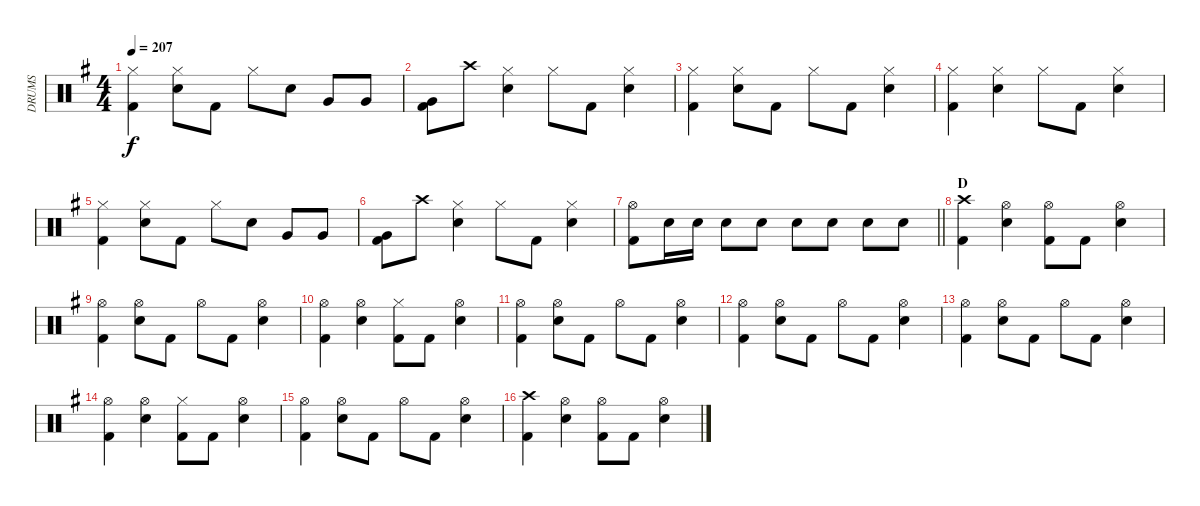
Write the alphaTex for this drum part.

\track ("DRUMS" "DRUMS") {instrument percussion}
\staff {score}
\articulation defaults
\ts (4 4)
\tempo 207
\clef neutral
\ks eminor
("Hi-Hat (closed)" "Kick (hit) 2").4{dy f} ("Hi-Hat (closed)" "Snare (hit) 2").8 "Kick (hit) 2".8 "Hi-Hat (closed)".8 "Snare (hit) 2".8 "Very Low Tom (hit)".8 "Very Low Tom (hit)".8 |
("Very Low Tom (hit)" "Kick (hit) 2").8 "Crash high (hit)".8 ("Hi-Hat (closed)" "Snare (hit) 2").4 "Hi-Hat (closed)".8 "Kick (hit) 2".8 ("Hi-Hat (closed)" "Snare (hit) 2").4 |
("Hi-Hat (closed)" "Kick (hit) 2").4 ("Hi-Hat (closed)" "Snare (hit) 2").8 "Kick (hit) 2".8 "Hi-Hat (closed)".8 "Kick (hit) 2".8 ("Hi-Hat (closed)" "Snare (hit) 2").4 |
("Hi-Hat (closed)" "Kick (hit) 2").4 ("Hi-Hat (closed)" "Snare (hit) 2").4 "Hi-Hat (closed)".8 "Kick (hit) 2".8 ("Hi-Hat (closed)" "Snare (hit) 2").4 |
("Hi-Hat (closed)" "Kick (hit) 2").4 ("Hi-Hat (closed)" "Snare (hit) 2").8 "Kick (hit) 2".8 "Hi-Hat (closed)".8 "Snare (hit) 2".8 "Very Low Tom (hit)".8 "Very Low Tom (hit)".8 |
("Very Low Tom (hit)" "Kick (hit) 2").8 "Crash high (hit)".8 ("Hi-Hat (closed)" "Snare (hit) 2").4 "Hi-Hat (closed)".8 "Kick (hit) 2".8 ("Hi-Hat (closed)" "Snare (hit) 2").4 |
\barLineRight lightlight
("Hi-Hat (open)" "Kick (hit) 2").8 "Snare (hit) 2".16 "Snare (hit) 2".16 "Snare (hit) 2".8 "Snare (hit) 2".8 "Snare (hit) 2".8 "Snare (hit) 2".8 "Snare (hit) 2".8 "Snare (hit) 2".8 |
\section ("" "D")
("Crash high (hit)" "Kick (hit) 2").4 ("Hi-Hat (open)" "Snare (hit) 2").4 ("Hi-Hat (open)" "Kick (hit) 2").8 "Kick (hit) 2".8 ("Hi-Hat (open)" "Snare (hit) 2").4 |
("Hi-Hat (open)" "Kick (hit) 2").4 ("Hi-Hat (open)" "Snare (hit) 2").8 "Kick (hit) 2".8 "Hi-Hat (open)".8 "Kick (hit) 2".8 ("Hi-Hat (open)" "Snare (hit) 2").4 |
("Hi-Hat (open)" "Kick (hit) 2").4 ("Hi-Hat (open)" "Snare (hit) 2").4 ("Hi-Hat (closed)" "Kick (hit) 2").8 "Kick (hit) 2".8 ("Hi-Hat (open)" "Snare (hit) 2").4 |
("Hi-Hat (open)" "Kick (hit) 2").4 ("Hi-Hat (open)" "Snare (hit) 2").8 "Kick (hit) 2".8 "Hi-Hat (open)".8 "Kick (hit) 2".8 ("Hi-Hat (open)" "Snare (hit) 2").4 |
("Hi-Hat (open)" "Kick (hit) 2").4 ("Hi-Hat (open)" "Snare (hit) 2").8 "Kick (hit) 2".8 "Hi-Hat (open)".8 "Kick (hit) 2".8 ("Hi-Hat (open)" "Snare (hit) 2").4 |
("Hi-Hat (open)" "Kick (hit) 2").4 ("Hi-Hat (open)" "Snare (hit) 2").8 "Kick (hit) 2".8 "Hi-Hat (open)".8 "Kick (hit) 2".8 ("Hi-Hat (open)" "Snare (hit) 2").4 |
("Hi-Hat (open)" "Kick (hit) 2").4 ("Hi-Hat (open)" "Snare (hit) 2").4 ("Hi-Hat (closed)" "Kick (hit) 2").8 "Kick (hit) 2".8 ("Hi-Hat (open)" "Snare (hit) 2").4 |
("Hi-Hat (open)" "Kick (hit) 2").4 ("Hi-Hat (open)" "Snare (hit) 2").8 "Kick (hit) 2".8 "Hi-Hat (open)".8 "Kick (hit) 2".8 ("Hi-Hat (open)" "Snare (hit) 2").4 |
("Crash high (hit)" "Kick (hit) 2").4 ("Hi-Hat (open)" "Snare (hit) 2").4 ("Hi-Hat (open)" "Kick (hit) 2").8 "Kick (hit) 2".8 ("Hi-Hat (open)" "Snare (hit) 2").4
